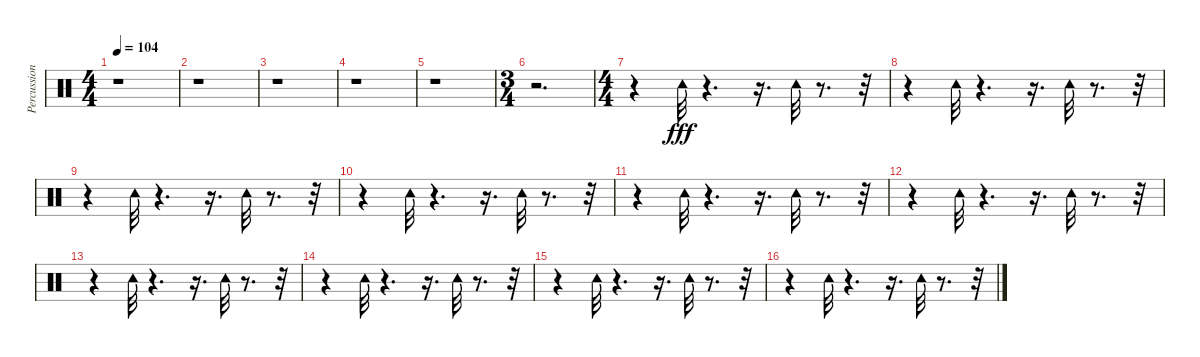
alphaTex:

\track ("Percussion" "Percussion") {instrument percussion}
\staff {score}
\articulation defaults
\ts (4 4)
\tempo 104
\clef neutral
\ks c
r.1{dy fff} |
r.1 |
r.1 |
r.1 |
r.1 |
\ts (3 4)
r.2{d} |
\ts (4 4)
r.4 "Tambourine (hit)".32 r.4{d} r.16{d} "Tambourine (hit)".32 r.8{d} r.32 |
r.4 "Tambourine (hit)".32 r.4{d} r.16{d} "Tambourine (hit)".32 r.8{d} r.32 |
r.4 "Tambourine (hit)".32 r.4{d} r.16{d} "Tambourine (hit)".32 r.8{d} r.32 |
r.4 "Tambourine (hit)".32 r.4{d} r.16{d} "Tambourine (hit)".32 r.8{d} r.32 |
r.4 "Tambourine (hit)".32 r.4{d} r.16{d} "Tambourine (hit)".32 r.8{d} r.32 |
r.4 "Tambourine (hit)".32 r.4{d} r.16{d} "Tambourine (hit)".32 r.8{d} r.32 |
r.4 "Tambourine (hit)".32 r.4{d} r.16{d} "Tambourine (hit)".32 r.8{d} r.32 |
r.4 "Tambourine (hit)".32 r.4{d} r.16{d} "Tambourine (hit)".32 r.8{d} r.32 |
r.4 "Tambourine (hit)".32 r.4{d} r.16{d} "Tambourine (hit)".32 r.8{d} r.32 |
r.4 "Tambourine (hit)".32 r.4{d} r.16{d} "Tambourine (hit)".32 r.8{d} r.32
